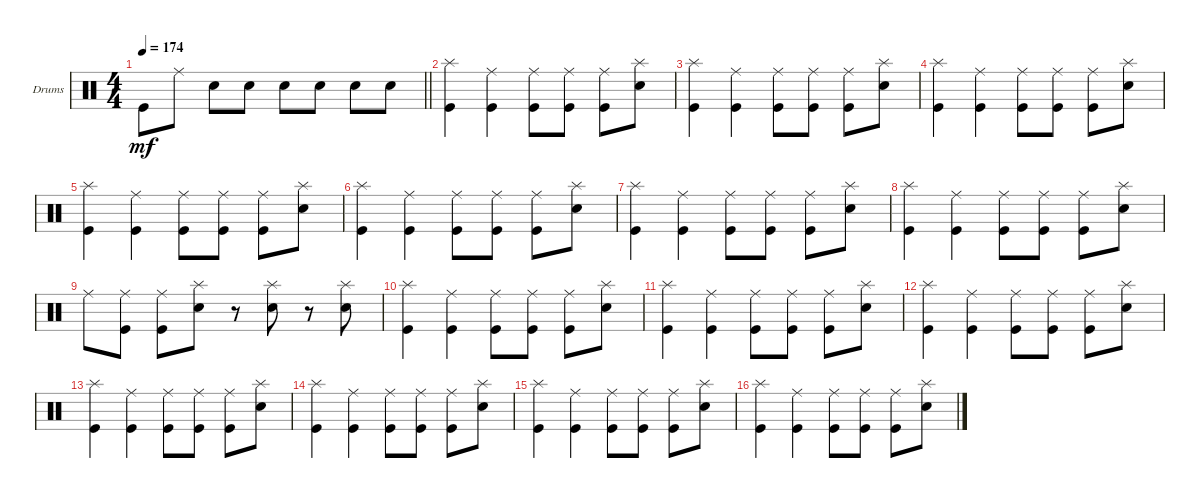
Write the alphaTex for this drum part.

\bracketExtendMode groupsimilarinstruments
\firstSystemTrackNameOrientation horizontal
\otherSystemsTrackNameOrientation horizontal
\track ("Drumkit" "Drums") {instrument percussion}
\staff {score}
\articulation defaults
\ts (4 4)
\tempo 174
\clef neutral
\scale
0.333333
\barLineRight lightlight
\ks c "Kick (hit)".8{dy mf} "Ride (middle)".8 "Snare (hit) 2".8 "Snare (hit) 2".8 "Snare (hit) 2".8 "Snare (hit) 2".8 "Snare (hit) 2".8 "Snare (hit) 2".8
|
\scale
0.333333 ("Splash (hit)" "Kick (hit)").4 ("Kick (hit)" "Ride (middle)").4 ("Kick (hit)" "Ride (middle)").8 ("Kick (hit)" "Ride (middle)").8 ("Kick (hit)" "Ride (middle)").8 ("Snare (hit) 2" "Splash (hit)").8 |
\scale
0.333333 ("Splash (hit)" "Kick (hit)").4 ("Kick (hit)" "Ride (middle)").4 ("Kick (hit)" "Ride (middle)").8 ("Kick (hit)" "Ride (middle)").8 ("Kick (hit)" "Ride (middle)").8 ("Snare (hit) 2" "Splash (hit)").8 |
\scale
0.333333 ("Splash (hit)" "Kick (hit)").4 ("Kick (hit)" "Ride (middle)").4 ("Kick (hit)" "Ride (middle)").8 ("Kick (hit)" "Ride (middle)").8 ("Kick (hit)" "Ride (middle)").8 ("Snare (hit) 2" "Splash (hit)").8 |
\scale
0.333333 ("Splash (hit)" "Kick (hit)").4 ("Kick (hit)" "Ride (middle)").4 ("Kick (hit)" "Ride (middle)").8 ("Kick (hit)" "Ride (middle)").8 ("Kick (hit)" "Ride (middle)").8 ("Snare (hit) 2" "Splash (hit)").8 |
\scale
0.333333 ("Splash (hit)" "Kick (hit)").4 ("Kick (hit)" "Ride (middle)").4 ("Kick (hit)" "Ride (middle)").8 ("Kick (hit)" "Ride (middle)").8 ("Kick (hit)" "Ride (middle)").8 ("Snare (hit) 2" "Splash (hit)").8 |
\scale
0.333333 ("Splash (hit)" "Kick (hit)").4 ("Kick (hit)" "Ride (middle)").4 ("Kick (hit)" "Ride (middle)").8 ("Kick (hit)" "Ride (middle)").8 ("Kick (hit)" "Ride (middle)").8 ("Snare (hit) 2" "Splash (hit)").8 |
\scale
0.333333 ("Splash (hit)" "Kick (hit)").4 ("Kick (hit)" "Ride (middle)").4 ("Kick (hit)" "Ride (middle)").8 ("Kick (hit)" "Ride (middle)").8 ("Kick (hit)" "Ride (middle)").8 ("Snare (hit) 2" "Splash (hit)").8 |
\scale
0.333333 "Ride (middle)".8 ("Kick (hit)" "Ride (middle)").8 ("Kick (hit)" "Ride (middle)").8 ("Snare (hit) 2" "Splash (hit)").8 r.8 ("Snare (hit) 2" "Splash (hit)").8 r.8 ("Splash (hit)" "Snare (hit) 2").8 |
\scale
0.333333 ("Splash (hit)" "Kick (hit)").4 ("Kick (hit)" "Ride (middle)").4 ("Kick (hit)" "Ride (middle)").8 ("Kick (hit)" "Ride (middle)").8 ("Kick (hit)" "Ride (middle)").8 ("Snare (hit) 2" "Splash (hit)").8 |
\scale
0.333333 ("Splash (hit)" "Kick (hit)").4 ("Kick (hit)" "Ride (middle)").4 ("Kick (hit)" "Ride (middle)").8 ("Kick (hit)" "Ride (middle)").8 ("Kick (hit)" "Ride (middle)").8 ("Snare (hit) 2" "Splash (hit)").8 |
\scale
0.333333 ("Splash (hit)" "Kick (hit)").4 ("Kick (hit)" "Ride (middle)").4 ("Kick (hit)" "Ride (middle)").8 ("Kick (hit)" "Ride (middle)").8 ("Kick (hit)" "Ride (middle)").8 ("Snare (hit) 2" "Splash (hit)").8 |
\scale
0.333333 ("Splash (hit)" "Kick (hit)").4 ("Kick (hit)" "Ride (middle)").4 ("Kick (hit)" "Ride (middle)").8 ("Kick (hit)" "Ride (middle)").8 ("Kick (hit)" "Ride (middle)").8 ("Snare (hit) 2" "Splash (hit)").8 |
\scale
0.333333 ("Splash (hit)" "Kick (hit)").4 ("Kick (hit)" "Ride (middle)").4 ("Kick (hit)" "Ride (middle)").8 ("Kick (hit)" "Ride (middle)").8 ("Kick (hit)" "Ride (middle)").8 ("Snare (hit) 2" "Splash (hit)").8 |
\scale
0.333333 ("Splash (hit)" "Kick (hit)").4 ("Kick (hit)" "Ride (middle)").4 ("Kick (hit)" "Ride (middle)").8 ("Kick (hit)" "Ride (middle)").8 ("Kick (hit)" "Ride (middle)").8 ("Snare (hit) 2" "Splash (hit)").8 |
\scale
0.333333 ("Splash (hit)" "Kick (hit)").4 ("Kick (hit)" "Ride (middle)").4 ("Kick (hit)" "Ride (middle)").8 ("Kick (hit)" "Ride (middle)").8 ("Kick (hit)" "Ride (middle)").8 ("Snare (hit) 2" "Splash (hit)").8
